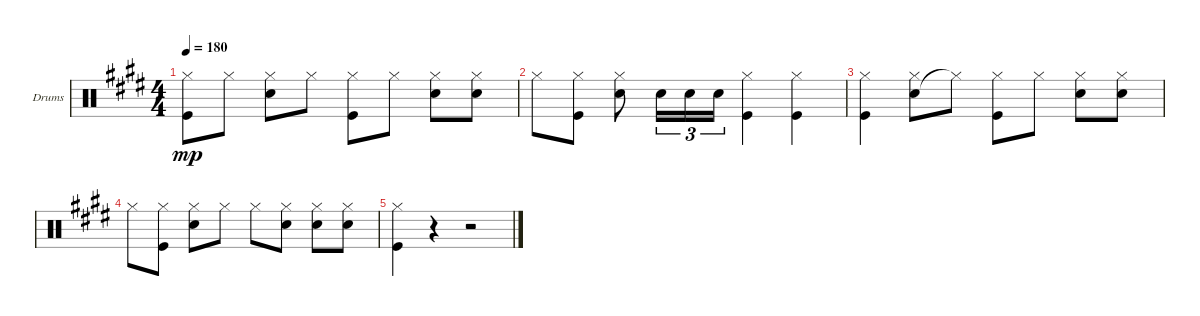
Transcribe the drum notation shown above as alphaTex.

\defaultSystemsLayout 4
\bracketExtendMode groupsimilarinstruments
\firstSystemTrackNameOrientation horizontal
\otherSystemsTrackNameOrientation horizontal
\track ("Drumkit" "Drums") {instrument percussion}
\staff {score}
\articulation defaults
\ts (4 4)
\tempo 180
\clef neutral
\ks c#minor
("Hi-Hat (closed)" "Kick (hit)").8{dy mp} "Hi-Hat (closed)".8 ("Hi-Hat (closed)" "Snare (hit) 2").8 "Hi-Hat (closed)".8 ("Hi-Hat (closed)" "Kick (hit)").8 "Hi-Hat (closed)".8 ("Hi-Hat (closed)" "Snare (hit) 2").8 ("Snare (hit) 2" "Hi-Hat (closed)").8 |
"Hi-Hat (closed)".8 ("Hi-Hat (closed)" "Kick (hit)").8 ("Hi-Hat (closed)" "Snare (hit) 2").8 "Snare (hit) 2".16{tu (3 2)} "Snare (hit) 2".16{tu (3 2)} "Snare (hit) 2".16{tu (3 2)} ("Hi-Hat (closed)" "Kick (hit)").4 ("Kick (hit)" "Hi-Hat (closed)").4 |
("Hi-Hat (closed)" "Kick (hit)").4 ("Snare (hit) 2" "Hi-Hat (closed)").8 "Hi-Hat (closed)"{t}.8 ("Hi-Hat (closed)" "Kick (hit)").8 "Hi-Hat (closed)".8 ("Snare (hit) 2" "Hi-Hat (closed)").8 ("Snare (hit) 2" "Hi-Hat (closed)").8 |
"Hi-Hat (closed)".8 ("Hi-Hat (closed)" "Kick (hit)").8 ("Hi-Hat (closed)" "Snare (hit) 2").8 "Hi-Hat (closed)".8 "Hi-Hat (closed)".8 ("Hi-Hat (closed)" "Snare (hit) 2").8 ("Snare (hit) 2" "Hi-Hat (closed)").8 ("Snare (hit) 2" "Hi-Hat (closed)").8 |
("Hi-Hat (closed)" "Kick (hit)").4 r.4 r.2
